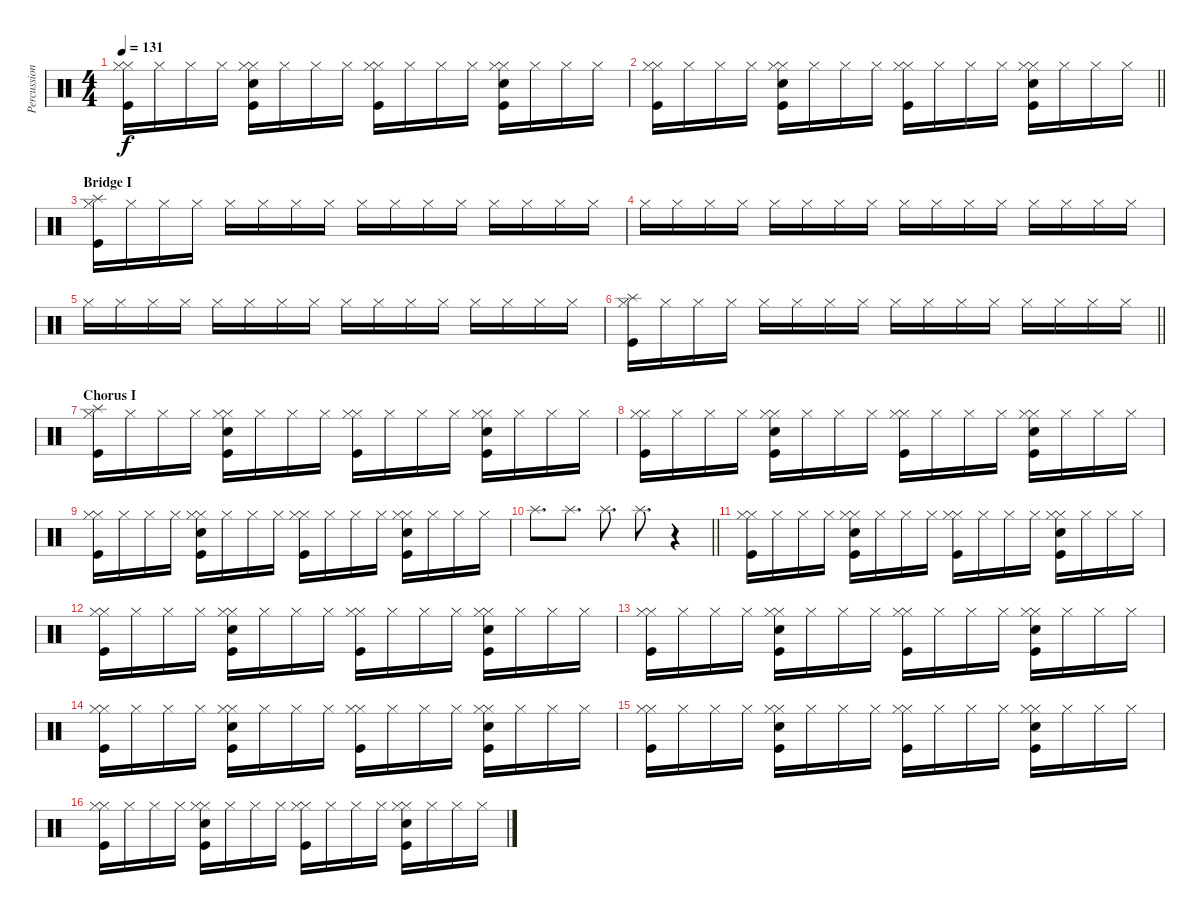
\track ("Percussion I" "Percussion") {instrument percussion}
\staff {score}
\articulation defaults
\ts (4 4)
\tempo 131
\clef neutral
\ks c
("Hi-Hat (closed)" "Hi-Hat (closed)" "Kick (hit)").16{dy f} "Hi-Hat (closed)".16 "Hi-Hat (closed)".16 "Hi-Hat (closed)".16 ("Hi-Hat (closed)" "Hand Clap (hit)" "Hi-Hat (closed)" "Kick (hit)").16 "Hi-Hat (closed)".16 "Hi-Hat (closed)".16 "Hi-Hat (closed)".16 ("Hi-Hat (closed)" "Hi-Hat (closed)" "Kick (hit)").16 "Hi-Hat (closed)".16 "Hi-Hat (closed)".16 "Hi-Hat (closed)".16 ("Hi-Hat (closed)" "Hand Clap (hit)" "Hi-Hat (closed)" "Kick (hit)").16 "Hi-Hat (closed)".16 "Hi-Hat (closed)".16 "Hi-Hat (closed)".16 |
\barLineRight lightlight
("Hi-Hat (closed)" "Hi-Hat (closed)" "Kick (hit)").16 "Hi-Hat (closed)".16 "Hi-Hat (closed)".16 "Hi-Hat (closed)".16 ("Hi-Hat (closed)" "Hand Clap (hit)" "Hi-Hat (closed)" "Kick (hit)").16 "Hi-Hat (closed)".16 "Hi-Hat (closed)".16 "Hi-Hat (closed)".16 ("Hi-Hat (closed)" "Hi-Hat (closed)" "Kick (hit)").16 "Hi-Hat (closed)".16 "Hi-Hat (closed)".16 "Hi-Hat (closed)".16 ("Hi-Hat (closed)" "Hand Clap (hit)" "Hi-Hat (closed)" "Kick (hit)").16 "Hi-Hat (closed)".16 "Hi-Hat (closed)".16 "Hi-Hat (closed)".16 |
\section ("" "Bridge I")
("Splash (hit)" "Hi-Hat (closed)" "Kick (hit)").16 "Hi-Hat (closed)".16 "Hi-Hat (closed)".16 "Hi-Hat (closed)".16 "Hi-Hat (closed)".16 "Hi-Hat (closed)".16 "Hi-Hat (closed)".16 "Hi-Hat (closed)".16 "Hi-Hat (closed)".16 "Hi-Hat (closed)".16 "Hi-Hat (closed)".16 "Hi-Hat (closed)".16 "Hi-Hat (closed)".16 "Hi-Hat (closed)".16 "Hi-Hat (closed)".16 "Hi-Hat (closed)".16 |
"Hi-Hat (closed)".16 "Hi-Hat (closed)".16 "Hi-Hat (closed)".16 "Hi-Hat (closed)".16 "Hi-Hat (closed)".16 "Hi-Hat (closed)".16 "Hi-Hat (closed)".16 "Hi-Hat (closed)".16 "Hi-Hat (closed)".16 "Hi-Hat (closed)".16 "Hi-Hat (closed)".16 "Hi-Hat (closed)".16 "Hi-Hat (closed)".16 "Hi-Hat (closed)".16 "Hi-Hat (closed)".16 "Hi-Hat (closed)".16 |
"Hi-Hat (closed)".16 "Hi-Hat (closed)".16 "Hi-Hat (closed)".16 "Hi-Hat (closed)".16 "Hi-Hat (closed)".16 "Hi-Hat (closed)".16 "Hi-Hat (closed)".16 "Hi-Hat (closed)".16 "Hi-Hat (closed)".16 "Hi-Hat (closed)".16 "Hi-Hat (closed)".16 "Hi-Hat (closed)".16 "Hi-Hat (closed)".16 "Hi-Hat (closed)".16 "Hi-Hat (closed)".16 "Hi-Hat (closed)".16 |
\barLineRight lightlight
("Splash (hit)" "Hi-Hat (closed)" "Kick (hit)").16 "Hi-Hat (closed)".16 "Hi-Hat (closed)".16 "Hi-Hat (closed)".16 "Hi-Hat (closed)".16 "Hi-Hat (closed)".16 "Hi-Hat (closed)".16 "Hi-Hat (closed)".16 "Hi-Hat (closed)".16 "Hi-Hat (closed)".16 "Hi-Hat (closed)".16 "Hi-Hat (closed)".16 "Hi-Hat (closed)".16 "Hi-Hat (closed)".16 "Hi-Hat (closed)".16 "Hi-Hat (closed)".16 |
\section ("" "Chorus I")
("Splash (hit)" "Hi-Hat (closed)" "Kick (hit)").16 "Hi-Hat (closed)".16 "Hi-Hat (closed)".16 "Hi-Hat (closed)".16 ("Hi-Hat (closed)" "Hand Clap (hit)" "Hi-Hat (closed)" "Kick (hit)").16 "Hi-Hat (closed)".16 "Hi-Hat (closed)".16 "Hi-Hat (closed)".16 ("Hi-Hat (closed)" "Hi-Hat (closed)" "Kick (hit)").16 "Hi-Hat (closed)".16 "Hi-Hat (closed)".16 "Hi-Hat (closed)".16 ("Hi-Hat (closed)" "Hand Clap (hit)" "Hi-Hat (closed)" "Kick (hit)").16 "Hi-Hat (closed)".16 "Hi-Hat (closed)".16 "Hi-Hat (closed)".16 |
("Hi-Hat (closed)" "Hi-Hat (closed)" "Kick (hit)").16 "Hi-Hat (closed)".16 "Hi-Hat (closed)".16 "Hi-Hat (closed)".16 ("Hi-Hat (closed)" "Hand Clap (hit)" "Hi-Hat (closed)" "Kick (hit)").16 "Hi-Hat (closed)".16 "Hi-Hat (closed)".16 "Hi-Hat (closed)".16 ("Hi-Hat (closed)" "Hi-Hat (closed)" "Kick (hit)").16 "Hi-Hat (closed)".16 "Hi-Hat (closed)".16 "Hi-Hat (closed)".16 ("Hi-Hat (closed)" "Hand Clap (hit)" "Hi-Hat (closed)" "Kick (hit)").16 "Hi-Hat (closed)".16 "Hi-Hat (closed)".16 "Hi-Hat (closed)".16 |
("Hi-Hat (closed)" "Hi-Hat (closed)" "Kick (hit)").16 "Hi-Hat (closed)".16 "Hi-Hat (closed)".16 "Hi-Hat (closed)".16 ("Hi-Hat (closed)" "Hand Clap (hit)" "Hi-Hat (closed)" "Kick (hit)").16 "Hi-Hat (closed)".16 "Hi-Hat (closed)".16 "Hi-Hat (closed)".16 ("Hi-Hat (closed)" "Hi-Hat (closed)" "Kick (hit)").16 "Hi-Hat (closed)".16 "Hi-Hat (closed)".16 "Hi-Hat (closed)".16 ("Hi-Hat (closed)" "Hand Clap (hit)" "Hi-Hat (closed)" "Kick (hit)").16 "Hi-Hat (closed)".16 "Hi-Hat (closed)".16 "Hi-Hat (closed)".16 |
\barLineRight lightlight "Splash (hit)".8{d} "Splash (hit)".8{d} "Splash (hit)".8{d} "Splash (hit)".8{d}
r.4 |
\section ("" "")
("Hi-Hat (closed)" "Hi-Hat (closed)" "Kick (hit)").16 "Hi-Hat (closed)".16 "Hi-Hat (closed)".16 "Hi-Hat (closed)".16 ("Hi-Hat (closed)" "Hand Clap (hit)" "Hi-Hat (closed)" "Kick (hit)").16 "Hi-Hat (closed)".16 "Hi-Hat (closed)".16 "Hi-Hat (closed)".16 ("Hi-Hat (closed)" "Hi-Hat (closed)" "Kick (hit)").16 "Hi-Hat (closed)".16 "Hi-Hat (closed)".16 "Hi-Hat (closed)".16 ("Hi-Hat (closed)" "Hand Clap (hit)" "Hi-Hat (closed)" "Kick (hit)").16 "Hi-Hat (closed)".16 "Hi-Hat (closed)".16 "Hi-Hat (closed)".16 |
("Hi-Hat (closed)" "Hi-Hat (closed)" "Kick (hit)").16 "Hi-Hat (closed)".16 "Hi-Hat (closed)".16 "Hi-Hat (closed)".16 ("Hi-Hat (closed)" "Hand Clap (hit)" "Hi-Hat (closed)" "Kick (hit)").16 "Hi-Hat (closed)".16 "Hi-Hat (closed)".16 "Hi-Hat (closed)".16 ("Hi-Hat (closed)" "Hi-Hat (closed)" "Kick (hit)").16 "Hi-Hat (closed)".16 "Hi-Hat (closed)".16 "Hi-Hat (closed)".16 ("Hi-Hat (closed)" "Hand Clap (hit)" "Hi-Hat (closed)" "Kick (hit)").16 "Hi-Hat (closed)".16 "Hi-Hat (closed)".16 "Hi-Hat (closed)".16 |
("Hi-Hat (closed)" "Hi-Hat (closed)" "Kick (hit)").16 "Hi-Hat (closed)".16 "Hi-Hat (closed)".16 "Hi-Hat (closed)".16 ("Hi-Hat (closed)" "Hand Clap (hit)" "Hi-Hat (closed)" "Kick (hit)").16 "Hi-Hat (closed)".16 "Hi-Hat (closed)".16 "Hi-Hat (closed)".16 ("Hi-Hat (closed)" "Hi-Hat (closed)" "Kick (hit)").16 "Hi-Hat (closed)".16 "Hi-Hat (closed)".16 "Hi-Hat (closed)".16 ("Hi-Hat (closed)" "Hand Clap (hit)" "Hi-Hat (closed)" "Kick (hit)").16 "Hi-Hat (closed)".16 "Hi-Hat (closed)".16 "Hi-Hat (closed)".16 |
("Hi-Hat (closed)" "Hi-Hat (closed)" "Kick (hit)").16 "Hi-Hat (closed)".16 "Hi-Hat (closed)".16 "Hi-Hat (closed)".16 ("Hi-Hat (closed)" "Hand Clap (hit)" "Hi-Hat (closed)" "Kick (hit)").16 "Hi-Hat (closed)".16 "Hi-Hat (closed)".16 "Hi-Hat (closed)".16 ("Hi-Hat (closed)" "Hi-Hat (closed)" "Kick (hit)").16 "Hi-Hat (closed)".16 "Hi-Hat (closed)".16 "Hi-Hat (closed)".16 ("Hi-Hat (closed)" "Hand Clap (hit)" "Hi-Hat (closed)" "Kick (hit)").16 "Hi-Hat (closed)".16 "Hi-Hat (closed)".16 "Hi-Hat (closed)".16 |
("Hi-Hat (closed)" "Hi-Hat (closed)" "Kick (hit)").16 "Hi-Hat (closed)".16 "Hi-Hat (closed)".16 "Hi-Hat (closed)".16 ("Hi-Hat (closed)" "Hand Clap (hit)" "Hi-Hat (closed)" "Kick (hit)").16 "Hi-Hat (closed)".16 "Hi-Hat (closed)".16 "Hi-Hat (closed)".16 ("Hi-Hat (closed)" "Hi-Hat (closed)" "Kick (hit)").16 "Hi-Hat (closed)".16 "Hi-Hat (closed)".16 "Hi-Hat (closed)".16 ("Hi-Hat (closed)" "Hand Clap (hit)" "Hi-Hat (closed)" "Kick (hit)").16 "Hi-Hat (closed)".16 "Hi-Hat (closed)".16 "Hi-Hat (closed)".16 |
("Hi-Hat (closed)" "Hi-Hat (closed)" "Kick (hit)").16 "Hi-Hat (closed)".16 "Hi-Hat (closed)".16 "Hi-Hat (closed)".16 ("Hi-Hat (closed)" "Hand Clap (hit)" "Hi-Hat (closed)" "Kick (hit)").16 "Hi-Hat (closed)".16 "Hi-Hat (closed)".16 "Hi-Hat (closed)".16 ("Hi-Hat (closed)" "Hi-Hat (closed)" "Kick (hit)").16 "Hi-Hat (closed)".16 "Hi-Hat (closed)".16 "Hi-Hat (closed)".16 ("Hi-Hat (closed)" "Hand Clap (hit)" "Hi-Hat (closed)" "Kick (hit)").16 "Hi-Hat (closed)".16 "Hi-Hat (closed)".16 "Hi-Hat (closed)".16
